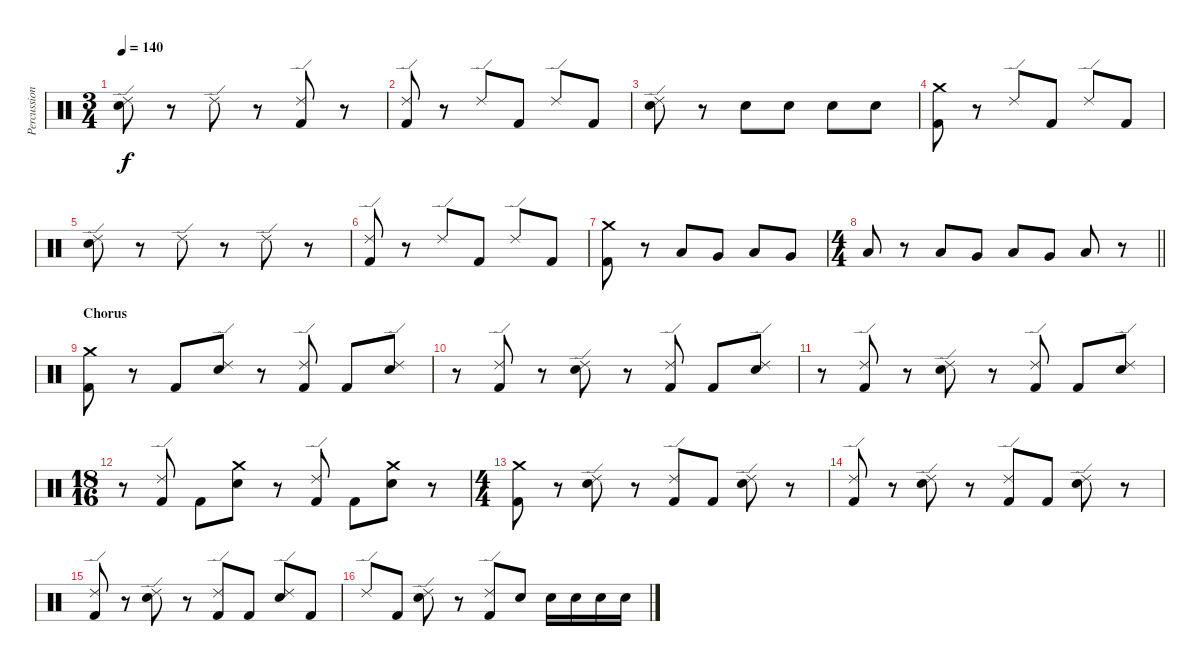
\track ("Percussion" "Percussion") {instrument percussion}
\staff {score}
\articulation defaults
\ts (3 4)
\tempo 140
\clef neutral
\ks c
("Ride (edge) 2" "Electric Snare (hit)").8{dy f} r.8 "Ride (edge) 2".8 r.8 ("Ride (edge) 2" "Kick (hit) 2").8 r.8 |
("Ride (edge) 2" "Kick (hit) 2").8 r.8 "Ride (edge) 2".8 "Kick (hit) 2".8 "Ride (edge) 2".8 "Kick (hit) 2".8 |
("Ride (edge) 2" "Electric Snare (hit)").8 r.8 "Electric Snare (hit)".8 "Electric Snare (hit)".8 "Electric Snare (hit)".8 "Electric Snare (hit)".8 |
("Crash medium (hit)" "Kick (hit) 2").8 r.8 "Ride (edge) 2".8 "Kick (hit) 2".8 "Ride (edge) 2".8 "Kick (hit) 2".8 |
("Ride (edge) 2" "Electric Snare (hit)").8 r.8 "Ride (edge) 2".8 r.8 "Ride (edge) 2".8 r.8 |
("Ride (edge) 2" "Kick (hit) 2").8 r.8 "Ride (edge) 2".8 "Kick (hit) 2".8 "Ride (edge) 2".8 "Kick (hit) 2".8 |
("Crash medium (hit)" "Kick (hit) 2").8 r.8 "Low Tom (hit)".8 "Very Low Tom (hit)".8 "Low Floor Tom (hit)".8 "Very Low Tom (hit)".8 |
\ts (4 4)
\barLineRight lightlight "Low Floor Tom (hit)".8
r.8 "Low Tom (hit)".8 "Very Low Tom (hit)".8 "Low Floor Tom (hit)".8 "Very Low Tom (hit)".8 "Low Floor Tom (hit)".8 r.8 |
\section ("" "Chorus")
("Crash medium (hit)" "Kick (hit) 2").8 r.8 "Kick (hit) 2".8 ("Ride (edge) 2" "Electric Snare (hit)").8 r.8 ("Ride (edge) 2" "Kick (hit) 2").8 "Kick (hit) 2".8 ("Ride (edge) 2" "Electric Snare (hit)").8 |
r.8 ("Ride (edge) 2" "Kick (hit) 2").8 r.8 ("Ride (edge) 2" "Electric Snare (hit)").8 r.8 ("Ride (edge) 2" "Kick (hit) 2").8 "Kick (hit) 2".8 ("Ride (edge) 2" "Electric Snare (hit)").8 |
r.8 ("Ride (edge) 2" "Kick (hit) 2").8 r.8 ("Ride (edge) 2" "Electric Snare (hit)").8 r.8 ("Ride (edge) 2" "Kick (hit) 2").8 "Kick (hit) 2".8 ("Ride (edge) 2" "Electric Snare (hit)").8 |
\ts (18 16)
r.8 ("Ride (edge) 2" "Kick (hit) 2").8 "Kick (hit) 2".8 ("Crash medium (hit)" "Electric Snare (hit)").8 r.8 ("Ride (edge) 2" "Kick (hit) 2").8 "Kick (hit) 2".8 ("Crash medium (hit)" "Electric Snare (hit)").8 r.8 |
\ts (4 4)
("Crash medium (hit)" "Kick (hit) 2").8 r.8 ("Ride (edge) 2" "Electric Snare (hit)").8 r.8 ("Ride (edge) 2" "Kick (hit) 2").8 "Kick (hit) 2".8 ("Ride (edge) 2" "Electric Snare (hit)").8 r.8 |
("Ride (edge) 2" "Kick (hit) 2").8 r.8 ("Ride (edge) 2" "Electric Snare (hit)").8 r.8 ("Ride (edge) 2" "Kick (hit) 2").8 "Kick (hit) 2".8 ("Ride (edge) 2" "Electric Snare (hit)").8 r.8 |
("Ride (edge) 2" "Kick (hit) 2").8 r.8 ("Ride (edge) 2" "Electric Snare (hit)").8 r.8 ("Ride (edge) 2" "Kick (hit) 2").8 "Kick (hit) 2".8 ("Ride (edge) 2" "Electric Snare (hit)").8 "Kick (hit) 2".8 |
"Ride (edge) 2".8 "Kick (hit) 2".8 ("Ride (edge) 2" "Electric Snare (hit)").8 r.8 ("Ride (edge) 2" "Kick (hit) 2").8 "Electric Snare (hit)".8 "Electric Snare (hit)".16 "Electric Snare (hit)".16 "Electric Snare (hit)".16 "Electric Snare (hit)".16
